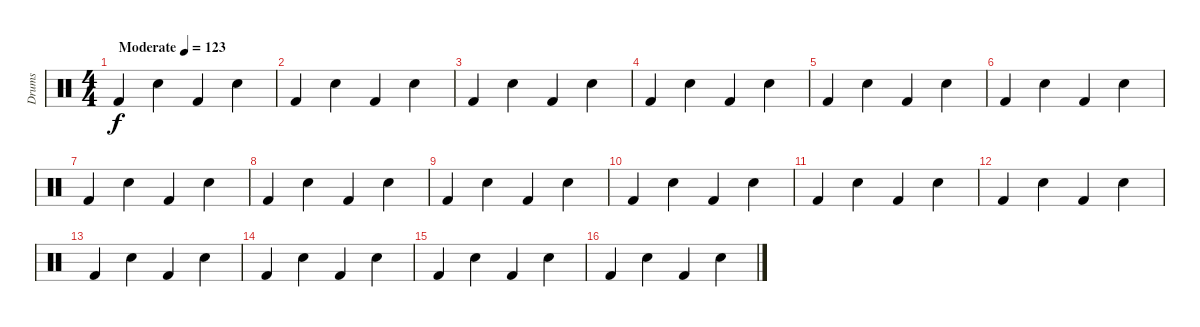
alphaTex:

\track ("Drums" "Drums") {instrument percussion}
\staff {score}
\articulation defaults
\ts (4 4)
\tempo (123 "Moderate")
\clef neutral
\ks c "Kick (hit) 2".4{dy f} "Electric Snare (hit)".4 "Kick (hit) 2".4 "Electric Snare (hit)".4
|
"Kick (hit) 2".4 "Electric Snare (hit)".4 "Kick (hit) 2".4 "Electric Snare (hit)".4 |
"Kick (hit) 2".4 "Electric Snare (hit)".4 "Kick (hit) 2".4 "Electric Snare (hit)".4 |
"Kick (hit) 2".4 "Electric Snare (hit)".4 "Kick (hit) 2".4 "Electric Snare (hit)".4 |
"Kick (hit) 2".4 "Electric Snare (hit)".4 "Kick (hit) 2".4 "Electric Snare (hit)".4 |
"Kick (hit) 2".4 "Electric Snare (hit)".4 "Kick (hit) 2".4 "Electric Snare (hit)".4 |
"Kick (hit) 2".4 "Electric Snare (hit)".4 "Kick (hit) 2".4 "Electric Snare (hit)".4 |
"Kick (hit) 2".4 "Electric Snare (hit)".4 "Kick (hit) 2".4 "Electric Snare (hit)".4 |
"Kick (hit) 2".4 "Electric Snare (hit)".4 "Kick (hit) 2".4 "Electric Snare (hit)".4 |
"Kick (hit) 2".4 "Electric Snare (hit)".4 "Kick (hit) 2".4 "Electric Snare (hit)".4 |
"Kick (hit) 2".4 "Electric Snare (hit)".4 "Kick (hit) 2".4 "Electric Snare (hit)".4 |
"Kick (hit) 2".4 "Electric Snare (hit)".4 "Kick (hit) 2".4 "Electric Snare (hit)".4 |
"Kick (hit) 2".4 "Electric Snare (hit)".4 "Kick (hit) 2".4 "Electric Snare (hit)".4 |
"Kick (hit) 2".4 "Electric Snare (hit)".4 "Kick (hit) 2".4 "Electric Snare (hit)".4 |
"Kick (hit) 2".4 "Electric Snare (hit)".4 "Kick (hit) 2".4 "Electric Snare (hit)".4 |
"Kick (hit) 2".4 "Electric Snare (hit)".4 "Kick (hit) 2".4 "Electric Snare (hit)".4
